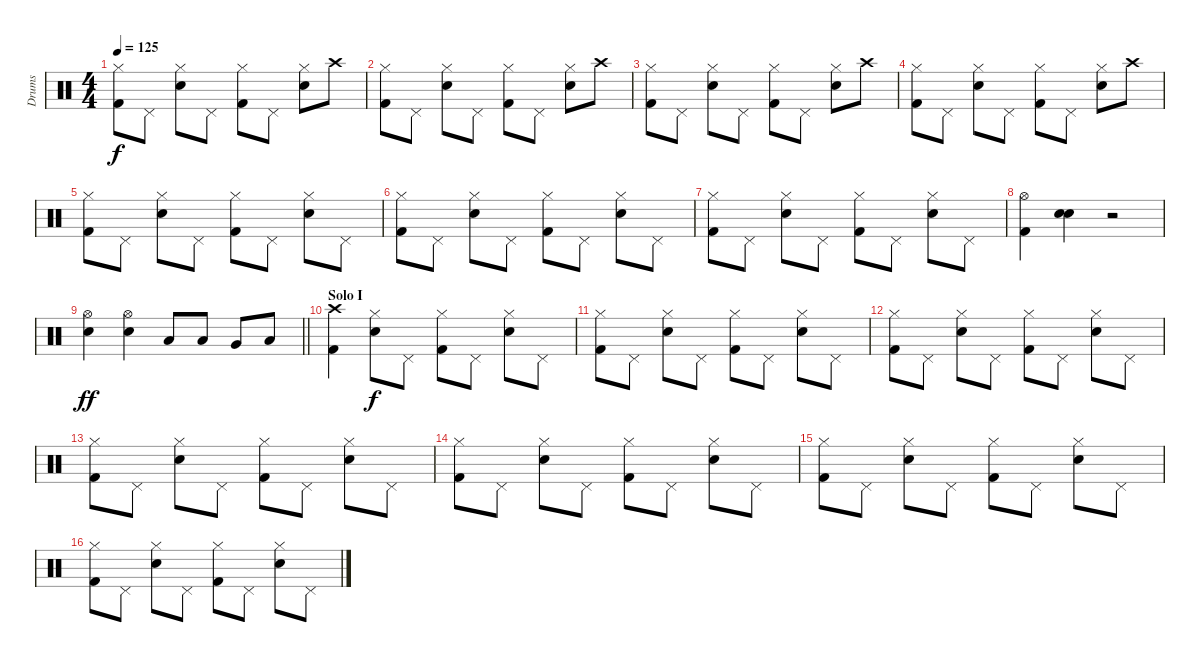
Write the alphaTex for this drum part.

\track ("Drums" "Drums") {instrument percussion}
\staff {score}
\articulation defaults
\ts (4 4)
\tempo 125
\clef neutral
\ks c
("Hi-Hat (closed)" "Kick (hit) 2").8{dy f} "Pedal Hi-Hat (hit)".8 ("Hi-Hat (closed)" "Electric Snare (hit)").8 "Pedal Hi-Hat (hit)".8 ("Hi-Hat (closed)" "Kick (hit) 2").8 "Pedal Hi-Hat (hit)".8 ("Hi-Hat (closed)" "Electric Snare (hit)").8 "Crash high (hit)".8 |
("Hi-Hat (closed)" "Kick (hit) 2").8 "Pedal Hi-Hat (hit)".8 ("Hi-Hat (closed)" "Electric Snare (hit)").8 "Pedal Hi-Hat (hit)".8 ("Hi-Hat (closed)" "Kick (hit) 2").8 "Pedal Hi-Hat (hit)".8 ("Hi-Hat (closed)" "Electric Snare (hit)").8 "Crash high (hit)".8 |
("Hi-Hat (closed)" "Kick (hit) 2").8 "Pedal Hi-Hat (hit)".8 ("Hi-Hat (closed)" "Electric Snare (hit)").8 "Pedal Hi-Hat (hit)".8 ("Hi-Hat (closed)" "Kick (hit) 2").8 "Pedal Hi-Hat (hit)".8 ("Hi-Hat (closed)" "Electric Snare (hit)").8 "Crash high (hit)".8 |
("Hi-Hat (closed)" "Kick (hit) 2").8 "Pedal Hi-Hat (hit)".8 ("Hi-Hat (closed)" "Electric Snare (hit)").8 "Pedal Hi-Hat (hit)".8 ("Hi-Hat (closed)" "Kick (hit) 2").8 "Pedal Hi-Hat (hit)".8 ("Hi-Hat (closed)" "Electric Snare (hit)").8 "Crash high (hit)".8 |
("Hi-Hat (closed)" "Kick (hit) 2").8 "Pedal Hi-Hat (hit)".8 ("Hi-Hat (closed)" "Electric Snare (hit)").8 "Pedal Hi-Hat (hit)".8 ("Hi-Hat (closed)" "Kick (hit) 2").8 "Pedal Hi-Hat (hit)".8 ("Hi-Hat (closed)" "Electric Snare (hit)").8 "Pedal Hi-Hat (hit)".8 |
("Hi-Hat (closed)" "Kick (hit) 2").8 "Pedal Hi-Hat (hit)".8 ("Hi-Hat (closed)" "Electric Snare (hit)").8 "Pedal Hi-Hat (hit)".8 ("Hi-Hat (closed)" "Kick (hit) 2").8 "Pedal Hi-Hat (hit)".8 ("Hi-Hat (closed)" "Electric Snare (hit)").8 "Pedal Hi-Hat (hit)".8 |
("Hi-Hat (closed)" "Kick (hit) 2").8 "Pedal Hi-Hat (hit)".8 ("Hi-Hat (closed)" "Electric Snare (hit)").8 "Pedal Hi-Hat (hit)".8 ("Hi-Hat (closed)" "Kick (hit) 2").8 "Pedal Hi-Hat (hit)".8 ("Hi-Hat (closed)" "Electric Snare (hit)").8 "Pedal Hi-Hat (hit)".8 |
("Hi-Hat (open)" "Kick (hit) 2").4 ("Snare (hit)"{x} "Snare (hit)"{x}).4 r.2 |
\barLineRight lightlight
("Hi-Hat (open)" "Snare (hit) 2").4{dy ff} ("Hi-Hat (open)" "Snare (hit) 2").4 "Low Tom (hit)".8{balance 2} "Low Tom (hit)".8 "Very Low Tom (hit)".8 "Low Floor Tom (hit)".8{balance 14} |
\section ("" "Solo I")
("Crash high (hit)" "Kick (hit) 2").4 ("Hi-Hat (closed)" "Electric Snare (hit)").8{dy f} "Pedal Hi-Hat (hit)".8 ("Hi-Hat (closed)" "Kick (hit) 2").8 "Pedal Hi-Hat (hit)".8 ("Hi-Hat (closed)" "Electric Snare (hit)").8 "Pedal Hi-Hat (hit)".8 |
("Hi-Hat (closed)" "Kick (hit) 2").8 "Pedal Hi-Hat (hit)".8 ("Hi-Hat (closed)" "Electric Snare (hit)").8 "Pedal Hi-Hat (hit)".8 ("Hi-Hat (closed)" "Kick (hit) 2").8 "Pedal Hi-Hat (hit)".8 ("Hi-Hat (closed)" "Electric Snare (hit)").8 "Pedal Hi-Hat (hit)".8 |
("Hi-Hat (closed)" "Kick (hit) 2").8 "Pedal Hi-Hat (hit)".8 ("Hi-Hat (closed)" "Electric Snare (hit)").8 "Pedal Hi-Hat (hit)".8 ("Hi-Hat (closed)" "Kick (hit) 2").8 "Pedal Hi-Hat (hit)".8 ("Hi-Hat (closed)" "Electric Snare (hit)").8 "Pedal Hi-Hat (hit)".8 |
("Hi-Hat (closed)" "Kick (hit) 2").8 "Pedal Hi-Hat (hit)".8 ("Hi-Hat (closed)" "Electric Snare (hit)").8 "Pedal Hi-Hat (hit)".8 ("Hi-Hat (closed)" "Kick (hit) 2").8 "Pedal Hi-Hat (hit)".8 ("Hi-Hat (closed)" "Electric Snare (hit)").8 "Pedal Hi-Hat (hit)".8 |
("Hi-Hat (closed)" "Kick (hit) 2").8 "Pedal Hi-Hat (hit)".8 ("Hi-Hat (closed)" "Electric Snare (hit)").8 "Pedal Hi-Hat (hit)".8 ("Hi-Hat (closed)" "Kick (hit) 2").8 "Pedal Hi-Hat (hit)".8 ("Hi-Hat (closed)" "Electric Snare (hit)").8 "Pedal Hi-Hat (hit)".8 |
("Hi-Hat (closed)" "Kick (hit) 2").8 "Pedal Hi-Hat (hit)".8 ("Hi-Hat (closed)" "Electric Snare (hit)").8 "Pedal Hi-Hat (hit)".8 ("Hi-Hat (closed)" "Kick (hit) 2").8 "Pedal Hi-Hat (hit)".8 ("Hi-Hat (closed)" "Electric Snare (hit)").8 "Pedal Hi-Hat (hit)".8 |
("Hi-Hat (closed)" "Kick (hit) 2").8 "Pedal Hi-Hat (hit)".8 ("Hi-Hat (closed)" "Electric Snare (hit)").8 "Pedal Hi-Hat (hit)".8 ("Hi-Hat (closed)" "Kick (hit) 2").8 "Pedal Hi-Hat (hit)".8 ("Hi-Hat (closed)" "Electric Snare (hit)").8 "Pedal Hi-Hat (hit)".8
